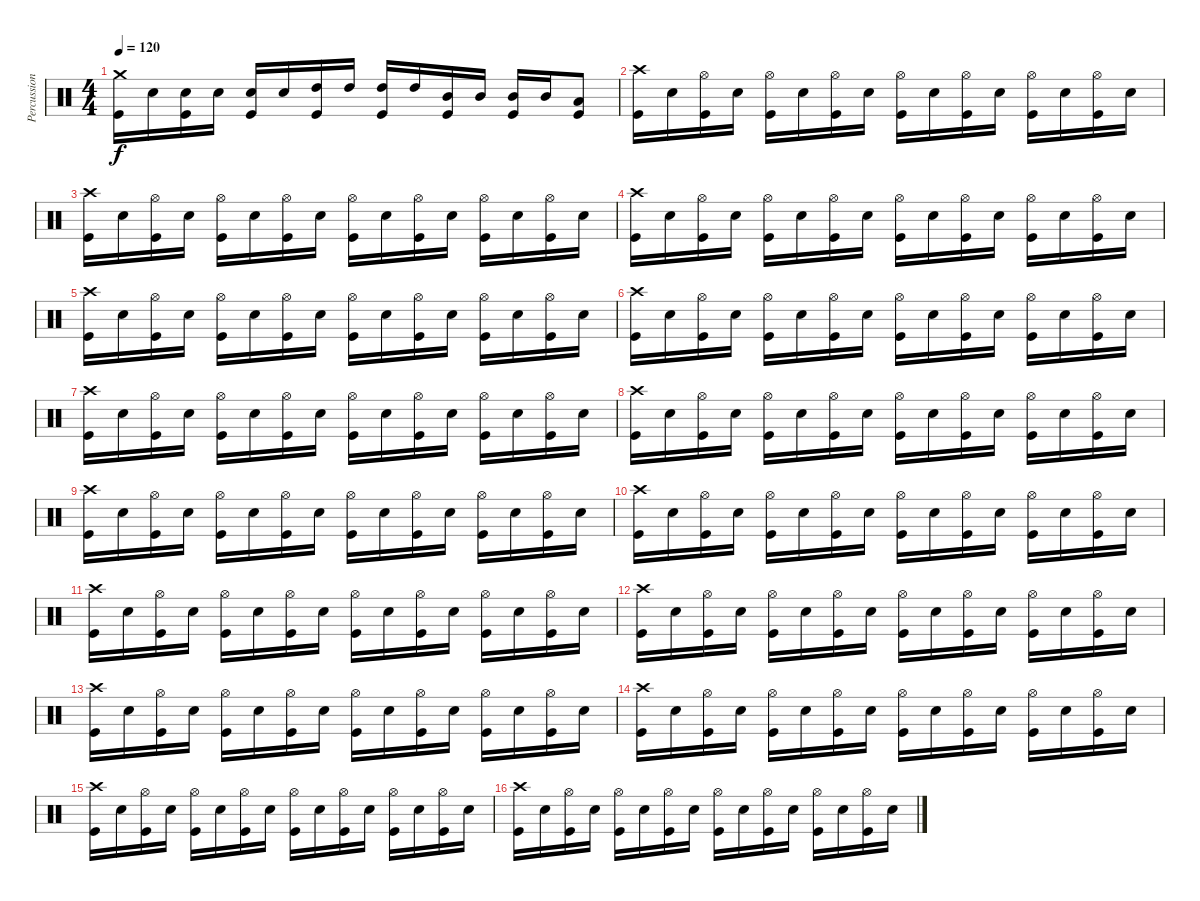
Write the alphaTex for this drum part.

\track ("Percussioni" "Percussion") {instrument percussion}
\staff {score}
\articulation defaults
\ts (4 4)
\tempo 120
\clef neutral
\ks c
("Crash medium (hit)" "Kick (hit)").16{dy f} "Electric Snare (hit)".16 ("Electric Snare (hit)" "Kick (hit)").16 "Electric Snare (hit)".16 ("Electric Snare (hit)" "Kick (hit)").16 "Electric Snare (hit)".16 ("High Tom (hit)" "Kick (hit)").16 "High Tom (hit)".16 ("High Tom (hit)" "Kick (hit)").16 "High Tom (hit)".16 ("Mid Tom (hit)" "Kick (hit)").16 "Mid Tom (hit)".16 ("Mid Tom (hit)" "Kick (hit)").16 "Mid Tom (hit)".16 ("Low Tom (hit)" "Kick (hit)").8 |
("Crash high (hit)" "Kick (hit)").16 "Electric Snare (hit)".16 ("Hi-Hat (open)" "Kick (hit)").16 "Electric Snare (hit)".16 ("Hi-Hat (open)" "Kick (hit)").16 "Electric Snare (hit)".16 ("Hi-Hat (open)" "Kick (hit)").16 "Electric Snare (hit)".16 ("Hi-Hat (open)" "Kick (hit)").16 "Electric Snare (hit)".16 ("Hi-Hat (open)" "Kick (hit)").16 "Electric Snare (hit)".16 ("Hi-Hat (open)" "Kick (hit)").16 "Electric Snare (hit)".16 ("Hi-Hat (open)" "Kick (hit)").16 "Electric Snare (hit)".16 |
("Crash high (hit)" "Kick (hit)").16 "Electric Snare (hit)".16 ("Hi-Hat (open)" "Kick (hit)").16 "Electric Snare (hit)".16 ("Hi-Hat (open)" "Kick (hit)").16 "Electric Snare (hit)".16 ("Hi-Hat (open)" "Kick (hit)").16 "Electric Snare (hit)".16 ("Hi-Hat (open)" "Kick (hit)").16 "Electric Snare (hit)".16 ("Hi-Hat (open)" "Kick (hit)").16 "Electric Snare (hit)".16 ("Hi-Hat (open)" "Kick (hit)").16 "Electric Snare (hit)".16 ("Hi-Hat (open)" "Kick (hit)").16 "Electric Snare (hit)".16 |
("Crash high (hit)" "Kick (hit)").16 "Electric Snare (hit)".16 ("Hi-Hat (open)" "Kick (hit)").16 "Electric Snare (hit)".16 ("Hi-Hat (open)" "Kick (hit)").16 "Electric Snare (hit)".16 ("Hi-Hat (open)" "Kick (hit)").16 "Electric Snare (hit)".16 ("Hi-Hat (open)" "Kick (hit)").16 "Electric Snare (hit)".16 ("Hi-Hat (open)" "Kick (hit)").16 "Electric Snare (hit)".16 ("Hi-Hat (open)" "Kick (hit)").16 "Electric Snare (hit)".16 ("Hi-Hat (open)" "Kick (hit)").16 "Electric Snare (hit)".16 |
("Crash high (hit)" "Kick (hit)").16 "Electric Snare (hit)".16 ("Hi-Hat (open)" "Kick (hit)").16 "Electric Snare (hit)".16 ("Hi-Hat (open)" "Kick (hit)").16 "Electric Snare (hit)".16 ("Hi-Hat (open)" "Kick (hit)").16 "Electric Snare (hit)".16 ("Hi-Hat (open)" "Kick (hit)").16 "Electric Snare (hit)".16 ("Hi-Hat (open)" "Kick (hit)").16 "Electric Snare (hit)".16 ("Hi-Hat (open)" "Kick (hit)").16 "Electric Snare (hit)".16 ("Hi-Hat (open)" "Kick (hit)").16 "Electric Snare (hit)".16 |
("Crash high (hit)" "Kick (hit)").16 "Electric Snare (hit)".16 ("Hi-Hat (open)" "Kick (hit)").16 "Electric Snare (hit)".16 ("Hi-Hat (open)" "Kick (hit)").16 "Electric Snare (hit)".16 ("Hi-Hat (open)" "Kick (hit)").16 "Electric Snare (hit)".16 ("Hi-Hat (open)" "Kick (hit)").16 "Electric Snare (hit)".16 ("Hi-Hat (open)" "Kick (hit)").16 "Electric Snare (hit)".16 ("Hi-Hat (open)" "Kick (hit)").16 "Electric Snare (hit)".16 ("Hi-Hat (open)" "Kick (hit)").16 "Electric Snare (hit)".16 |
("Crash high (hit)" "Kick (hit)").16 "Electric Snare (hit)".16 ("Hi-Hat (open)" "Kick (hit)").16 "Electric Snare (hit)".16 ("Hi-Hat (open)" "Kick (hit)").16 "Electric Snare (hit)".16 ("Hi-Hat (open)" "Kick (hit)").16 "Electric Snare (hit)".16 ("Hi-Hat (open)" "Kick (hit)").16 "Electric Snare (hit)".16 ("Hi-Hat (open)" "Kick (hit)").16 "Electric Snare (hit)".16 ("Hi-Hat (open)" "Kick (hit)").16 "Electric Snare (hit)".16 ("Hi-Hat (open)" "Kick (hit)").16 "Electric Snare (hit)".16 |
("Crash high (hit)" "Kick (hit)").16 "Electric Snare (hit)".16 ("Hi-Hat (open)" "Kick (hit)").16 "Electric Snare (hit)".16 ("Hi-Hat (open)" "Kick (hit)").16 "Electric Snare (hit)".16 ("Hi-Hat (open)" "Kick (hit)").16 "Electric Snare (hit)".16 ("Hi-Hat (open)" "Kick (hit)").16 "Electric Snare (hit)".16 ("Hi-Hat (open)" "Kick (hit)").16 "Electric Snare (hit)".16 ("Hi-Hat (open)" "Kick (hit)").16 "Electric Snare (hit)".16 ("Hi-Hat (open)" "Kick (hit)").16 "Electric Snare (hit)".16 |
("Crash high (hit)" "Kick (hit)").16 "Electric Snare (hit)".16 ("Hi-Hat (open)" "Kick (hit)").16 "Electric Snare (hit)".16 ("Hi-Hat (open)" "Kick (hit)").16 "Electric Snare (hit)".16 ("Hi-Hat (open)" "Kick (hit)").16 "Electric Snare (hit)".16 ("Hi-Hat (open)" "Kick (hit)").16 "Electric Snare (hit)".16 ("Hi-Hat (open)" "Kick (hit)").16 "Electric Snare (hit)".16 ("Hi-Hat (open)" "Kick (hit)").16 "Electric Snare (hit)".16 ("Hi-Hat (open)" "Kick (hit)").16 "Electric Snare (hit)".16 |
("Crash high (hit)" "Kick (hit)").16 "Electric Snare (hit)".16 ("Hi-Hat (open)" "Kick (hit)").16 "Electric Snare (hit)".16 ("Hi-Hat (open)" "Kick (hit)").16 "Electric Snare (hit)".16 ("Hi-Hat (open)" "Kick (hit)").16 "Electric Snare (hit)".16 ("Hi-Hat (open)" "Kick (hit)").16 "Electric Snare (hit)".16 ("Hi-Hat (open)" "Kick (hit)").16 "Electric Snare (hit)".16 ("Hi-Hat (open)" "Kick (hit)").16 "Electric Snare (hit)".16 ("Hi-Hat (open)" "Kick (hit)").16 "Electric Snare (hit)".16 |
("Crash high (hit)" "Kick (hit)").16 "Electric Snare (hit)".16 ("Hi-Hat (open)" "Kick (hit)").16 "Electric Snare (hit)".16 ("Hi-Hat (open)" "Kick (hit)").16 "Electric Snare (hit)".16 ("Hi-Hat (open)" "Kick (hit)").16 "Electric Snare (hit)".16 ("Hi-Hat (open)" "Kick (hit)").16 "Electric Snare (hit)".16 ("Hi-Hat (open)" "Kick (hit)").16 "Electric Snare (hit)".16 ("Hi-Hat (open)" "Kick (hit)").16 "Electric Snare (hit)".16 ("Hi-Hat (open)" "Kick (hit)").16 "Electric Snare (hit)".16 |
("Crash high (hit)" "Kick (hit)").16 "Electric Snare (hit)".16 ("Hi-Hat (open)" "Kick (hit)").16 "Electric Snare (hit)".16 ("Hi-Hat (open)" "Kick (hit)").16 "Electric Snare (hit)".16 ("Hi-Hat (open)" "Kick (hit)").16 "Electric Snare (hit)".16 ("Hi-Hat (open)" "Kick (hit)").16 "Electric Snare (hit)".16 ("Hi-Hat (open)" "Kick (hit)").16 "Electric Snare (hit)".16 ("Hi-Hat (open)" "Kick (hit)").16 "Electric Snare (hit)".16 ("Hi-Hat (open)" "Kick (hit)").16 "Electric Snare (hit)".16 |
("Crash high (hit)" "Kick (hit)").16 "Electric Snare (hit)".16 ("Hi-Hat (open)" "Kick (hit)").16 "Electric Snare (hit)".16 ("Hi-Hat (open)" "Kick (hit)").16 "Electric Snare (hit)".16 ("Hi-Hat (open)" "Kick (hit)").16 "Electric Snare (hit)".16 ("Hi-Hat (open)" "Kick (hit)").16 "Electric Snare (hit)".16 ("Hi-Hat (open)" "Kick (hit)").16 "Electric Snare (hit)".16 ("Hi-Hat (open)" "Kick (hit)").16 "Electric Snare (hit)".16 ("Hi-Hat (open)" "Kick (hit)").16 "Electric Snare (hit)".16 |
("Crash high (hit)" "Kick (hit)").16 "Electric Snare (hit)".16 ("Hi-Hat (open)" "Kick (hit)").16 "Electric Snare (hit)".16 ("Hi-Hat (open)" "Kick (hit)").16 "Electric Snare (hit)".16 ("Hi-Hat (open)" "Kick (hit)").16 "Electric Snare (hit)".16 ("Hi-Hat (open)" "Kick (hit)").16 "Electric Snare (hit)".16 ("Hi-Hat (open)" "Kick (hit)").16 "Electric Snare (hit)".16 ("Hi-Hat (open)" "Kick (hit)").16 "Electric Snare (hit)".16 ("Hi-Hat (open)" "Kick (hit)").16 "Electric Snare (hit)".16 |
("Crash high (hit)" "Kick (hit)").16 "Electric Snare (hit)".16 ("Hi-Hat (open)" "Kick (hit)").16 "Electric Snare (hit)".16 ("Hi-Hat (open)" "Kick (hit)").16 "Electric Snare (hit)".16 ("Hi-Hat (open)" "Kick (hit)").16 "Electric Snare (hit)".16 ("Hi-Hat (open)" "Kick (hit)").16 "Electric Snare (hit)".16 ("Hi-Hat (open)" "Kick (hit)").16 "Electric Snare (hit)".16 ("Hi-Hat (open)" "Kick (hit)").16 "Electric Snare (hit)".16 ("Hi-Hat (open)" "Kick (hit)").16 "Electric Snare (hit)".16 |
("Crash high (hit)" "Kick (hit)").16 "Electric Snare (hit)".16 ("Hi-Hat (open)" "Kick (hit)").16 "Electric Snare (hit)".16 ("Hi-Hat (open)" "Kick (hit)").16 "Electric Snare (hit)".16 ("Hi-Hat (open)" "Kick (hit)").16 "Electric Snare (hit)".16 ("Hi-Hat (open)" "Kick (hit)").16 "Electric Snare (hit)".16 ("Hi-Hat (open)" "Kick (hit)").16 "Electric Snare (hit)".16 ("Hi-Hat (open)" "Kick (hit)").16 "Electric Snare (hit)".16 ("Hi-Hat (open)" "Kick (hit)").16 "Electric Snare (hit)".16
